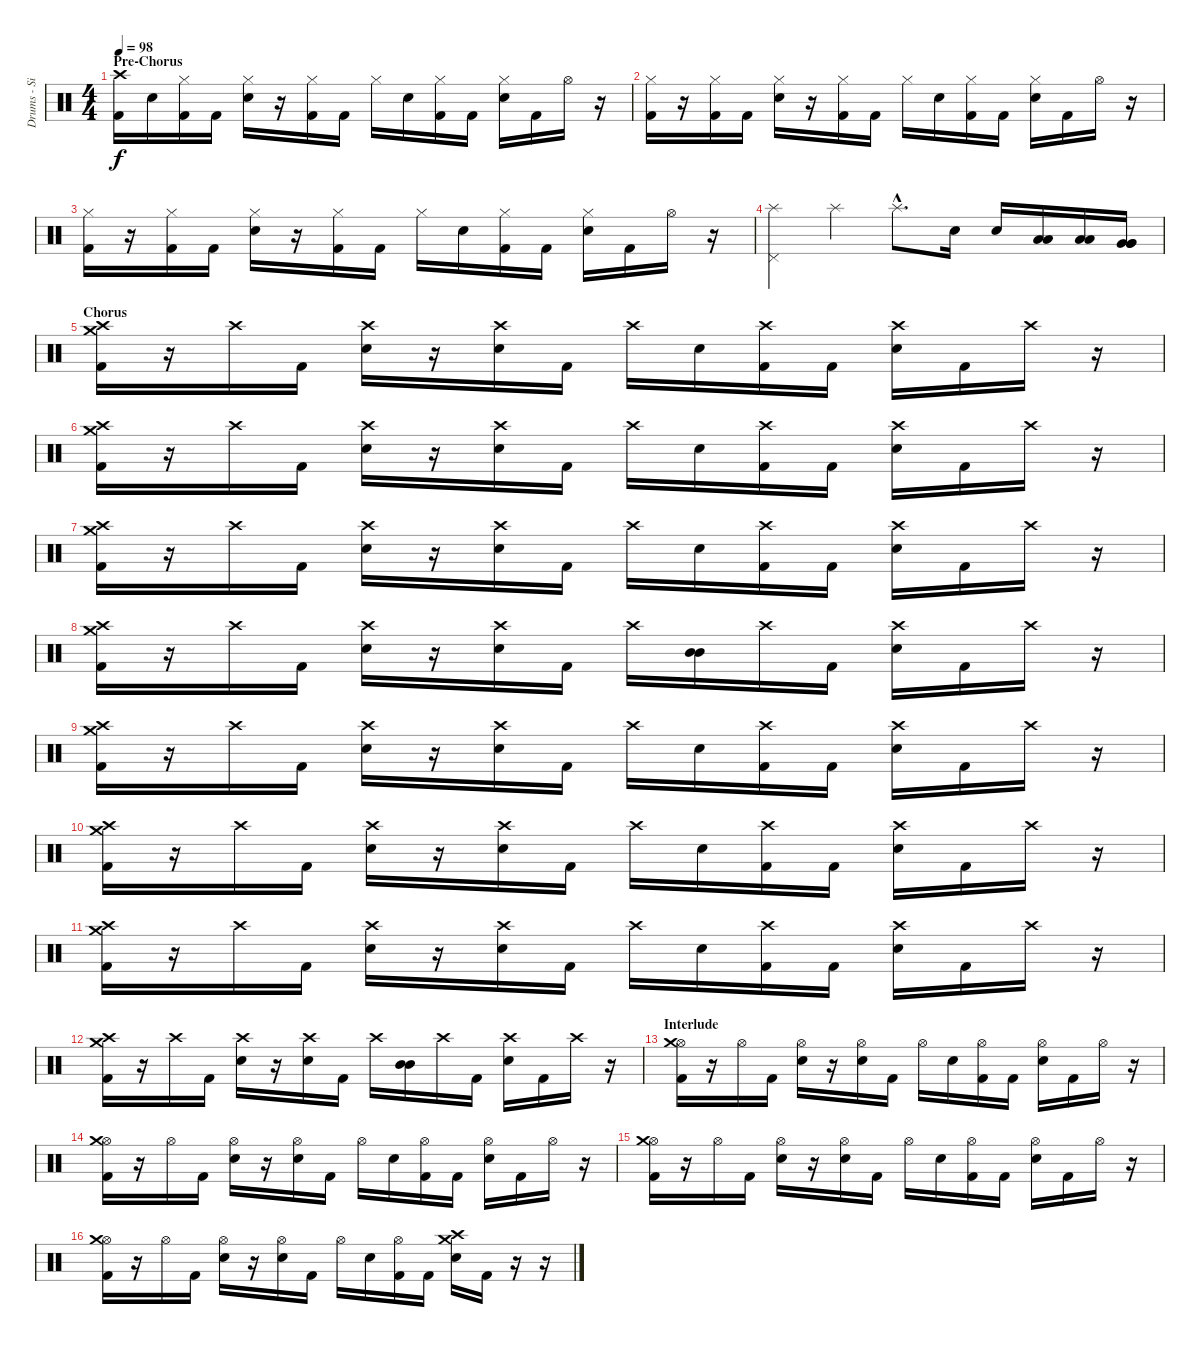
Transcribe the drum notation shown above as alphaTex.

\track ("Drums - Si" "Drums - Si") {instrument percussion}
\staff {score}
\articulation defaults
\ts (4 4)
\section ("" "Pre-Chorus")
\tempo 98
\clef neutral
\ks c
("Crash high (hit)" "Kick (hit) 2").16{dy f} "Snare (hit) 2".16 ("Hi-Hat (closed)" "Kick (hit) 2").16 "Kick (hit) 2".16 ("Hi-Hat (closed)" "Snare (hit) 2").16 r.16 ("Hi-Hat (closed)" "Kick (hit) 2").16 "Kick (hit) 2".16 "Hi-Hat (closed)".16 "Snare (hit) 2".16 ("Hi-Hat (closed)" "Kick (hit) 2").16 "Kick (hit) 2".16 ("Hi-Hat (closed)" "Snare (hit) 2").16 "Kick (hit) 2".16 "Hi-Hat (open)".16 r.16 |
("Hi-Hat (closed)" "Kick (hit) 2").16 r.16 ("Hi-Hat (closed)" "Kick (hit) 2").16 "Kick (hit) 2".16 ("Hi-Hat (closed)" "Snare (hit) 2").16 r.16 ("Hi-Hat (closed)" "Kick (hit) 2").16 "Kick (hit) 2".16 "Hi-Hat (closed)".16 "Snare (hit) 2".16 ("Hi-Hat (closed)" "Kick (hit) 2").16 "Kick (hit) 2".16 ("Hi-Hat (closed)" "Snare (hit) 2").16 "Kick (hit) 2".16 "Hi-Hat (open)".16 r.16 |
("Hi-Hat (closed)" "Kick (hit) 2").16 r.16 ("Hi-Hat (closed)" "Kick (hit) 2").16 "Kick (hit) 2".16 ("Hi-Hat (closed)" "Snare (hit) 2").16 r.16 ("Hi-Hat (closed)" "Kick (hit) 2").16 "Kick (hit) 2".16 "Hi-Hat (closed)".16 "Snare (hit) 2".16 ("Hi-Hat (closed)" "Kick (hit) 2").16 "Kick (hit) 2".16 ("Hi-Hat (closed)" "Snare (hit) 2").16 "Kick (hit) 2".16 "Hi-Hat (open)".16 r.16 |
("Splash (hit)" "Pedal Hi-Hat (hit)").4 "Splash (hit)".4 "Splash (hit)"{hac}.8{d} "Snare (hit) 2".16 "Snare (hit) 2".16 ("Low Tom (hit)" "Low Tom (hit)").16 ("Low Tom (hit)" "Low Tom (hit)").16 ("Very Low Tom (hit)" "Very Low Tom (hit)" "Very Low Tom (hit)").16 |
\section ("" "Chorus")
("Crash high (hit)" "Crash medium (hit)" "Kick (hit) 2").16 r.16 "Crash high (hit)".16 "Kick (hit) 2".16 ("Crash high (hit)" "Snare (hit) 2").16 r.16 ("Crash high (hit)" "Snare (hit) 2").16 "Kick (hit) 2".16 "Crash high (hit)".16 "Snare (hit) 2".16 ("Crash high (hit)" "Kick (hit) 2").16 "Kick (hit) 2".16 ("Crash high (hit)" "Snare (hit) 2").16 "Kick (hit) 2".16 "Crash high (hit)".16 r.16 |
("Crash high (hit)" "Crash medium (hit)" "Kick (hit) 2").16 r.16 "Crash high (hit)".16 "Kick (hit) 2".16 ("Crash high (hit)" "Snare (hit) 2").16 r.16 ("Crash high (hit)" "Snare (hit) 2").16 "Kick (hit) 2".16 "Crash high (hit)".16 "Snare (hit) 2".16 ("Crash high (hit)" "Kick (hit) 2").16 "Kick (hit) 2".16 ("Crash high (hit)" "Snare (hit) 2").16 "Kick (hit) 2".16 "Crash high (hit)".16 r.16 |
("Crash high (hit)" "Crash medium (hit)" "Kick (hit) 2").16 r.16 "Crash high (hit)".16 "Kick (hit) 2".16 ("Crash high (hit)" "Snare (hit) 2").16 r.16 ("Crash high (hit)" "Snare (hit) 2").16 "Kick (hit) 2".16 "Crash high (hit)".16 "Snare (hit) 2".16 ("Crash high (hit)" "Kick (hit) 2").16 "Kick (hit) 2".16 ("Crash high (hit)" "Snare (hit) 2").16 "Kick (hit) 2".16 "Crash high (hit)".16 r.16 |
("Crash high (hit)" "Crash medium (hit)" "Kick (hit) 2").16 r.16 "Crash high (hit)".16 "Kick (hit) 2".16 ("Crash high (hit)" "Snare (hit) 2").16 r.16 ("Crash high (hit)" "Snare (hit) 2").16 "Kick (hit) 2".16 "Crash high (hit)".16 ("Mid Tom (hit)" "Mid Tom (hit)").16 "Crash high (hit)".16 "Kick (hit) 2".16 ("Crash high (hit)" "Snare (hit) 2").16 "Kick (hit) 2".16 "Crash high (hit)".16 r.16 |
("Crash high (hit)" "Crash medium (hit)" "Kick (hit) 2").16 r.16 "Crash high (hit)".16 "Kick (hit) 2".16 ("Crash high (hit)" "Snare (hit) 2").16 r.16 ("Crash high (hit)" "Snare (hit) 2").16 "Kick (hit) 2".16 "Crash high (hit)".16 "Snare (hit) 2".16 ("Crash high (hit)" "Kick (hit) 2").16 "Kick (hit) 2".16 ("Crash high (hit)" "Snare (hit) 2").16 "Kick (hit) 2".16 "Crash high (hit)".16 r.16 |
("Crash high (hit)" "Crash medium (hit)" "Kick (hit) 2").16 r.16 "Crash high (hit)".16 "Kick (hit) 2".16 ("Crash high (hit)" "Snare (hit) 2").16 r.16 ("Crash high (hit)" "Snare (hit) 2").16 "Kick (hit) 2".16 "Crash high (hit)".16 "Snare (hit) 2".16 ("Crash high (hit)" "Kick (hit) 2").16 "Kick (hit) 2".16 ("Crash high (hit)" "Snare (hit) 2").16 "Kick (hit) 2".16 "Crash high (hit)".16 r.16 |
("Crash high (hit)" "Crash medium (hit)" "Kick (hit) 2").16 r.16 "Crash high (hit)".16 "Kick (hit) 2".16 ("Crash high (hit)" "Snare (hit) 2").16 r.16 ("Crash high (hit)" "Snare (hit) 2").16 "Kick (hit) 2".16 "Crash high (hit)".16 "Snare (hit) 2".16 ("Crash high (hit)" "Kick (hit) 2").16 "Kick (hit) 2".16 ("Crash high (hit)" "Snare (hit) 2").16 "Kick (hit) 2".16 "Crash high (hit)".16 r.16 |
("Crash high (hit)" "Crash medium (hit)" "Kick (hit) 2").16 r.16 "Crash high (hit)".16 "Kick (hit) 2".16 ("Crash high (hit)" "Snare (hit) 2").16 r.16 ("Crash high (hit)" "Snare (hit) 2").16 "Kick (hit) 2".16 "Crash high (hit)".16 ("Mid Tom (hit)" "Mid Tom (hit)").16 "Crash high (hit)".16 "Kick (hit) 2".16 ("Crash high (hit)" "Snare (hit) 2").16 "Kick (hit) 2".16 "Crash high (hit)".16 r.16 |
\section ("" "Interlude")
("Hi-Hat (open)" "Crash medium (hit)" "Kick (hit) 2").16 r.16 "Hi-Hat (open)".16 "Kick (hit) 2".16 ("Hi-Hat (open)" "Snare (hit) 2").16 r.16 ("Hi-Hat (open)" "Snare (hit) 2").16 "Kick (hit) 2".16 "Hi-Hat (open)".16 "Snare (hit) 2".16 ("Hi-Hat (open)" "Kick (hit) 2").16 "Kick (hit) 2".16 ("Hi-Hat (open)" "Snare (hit) 2").16 "Kick (hit) 2".16 "Hi-Hat (open)".16 r.16 |
("Hi-Hat (open)" "Crash medium (hit)" "Kick (hit) 2").16 r.16 "Hi-Hat (open)".16 "Kick (hit) 2".16 ("Hi-Hat (open)" "Snare (hit) 2").16 r.16 ("Hi-Hat (open)" "Snare (hit) 2").16 "Kick (hit) 2".16 "Hi-Hat (open)".16 "Snare (hit) 2".16 ("Hi-Hat (open)" "Kick (hit) 2").16 "Kick (hit) 2".16 ("Hi-Hat (open)" "Snare (hit) 2").16 "Kick (hit) 2".16 "Hi-Hat (open)".16 r.16 |
("Hi-Hat (open)" "Crash medium (hit)" "Kick (hit) 2").16 r.16 "Hi-Hat (open)".16 "Kick (hit) 2".16 ("Hi-Hat (open)" "Snare (hit) 2").16 r.16 ("Hi-Hat (open)" "Snare (hit) 2").16 "Kick (hit) 2".16 "Hi-Hat (open)".16 "Snare (hit) 2".16 ("Hi-Hat (open)" "Kick (hit) 2").16 "Kick (hit) 2".16 ("Hi-Hat (open)" "Snare (hit) 2").16 "Kick (hit) 2".16 "Hi-Hat (open)".16 r.16 |
("Hi-Hat (open)" "Crash medium (hit)" "Kick (hit) 2").16 r.16 "Hi-Hat (open)".16 "Kick (hit) 2".16 ("Hi-Hat (open)" "Snare (hit) 2").16 r.16 ("Hi-Hat (open)" "Snare (hit) 2").16 "Kick (hit) 2".16 "Hi-Hat (open)".16 "Snare (hit) 2".16 ("Hi-Hat (open)" "Kick (hit) 2").16 "Kick (hit) 2".16 ("Crash high (hit)" "Crash medium (hit)" "Snare (hit) 2").16 "Kick (hit) 2".16 r.16 r.16
